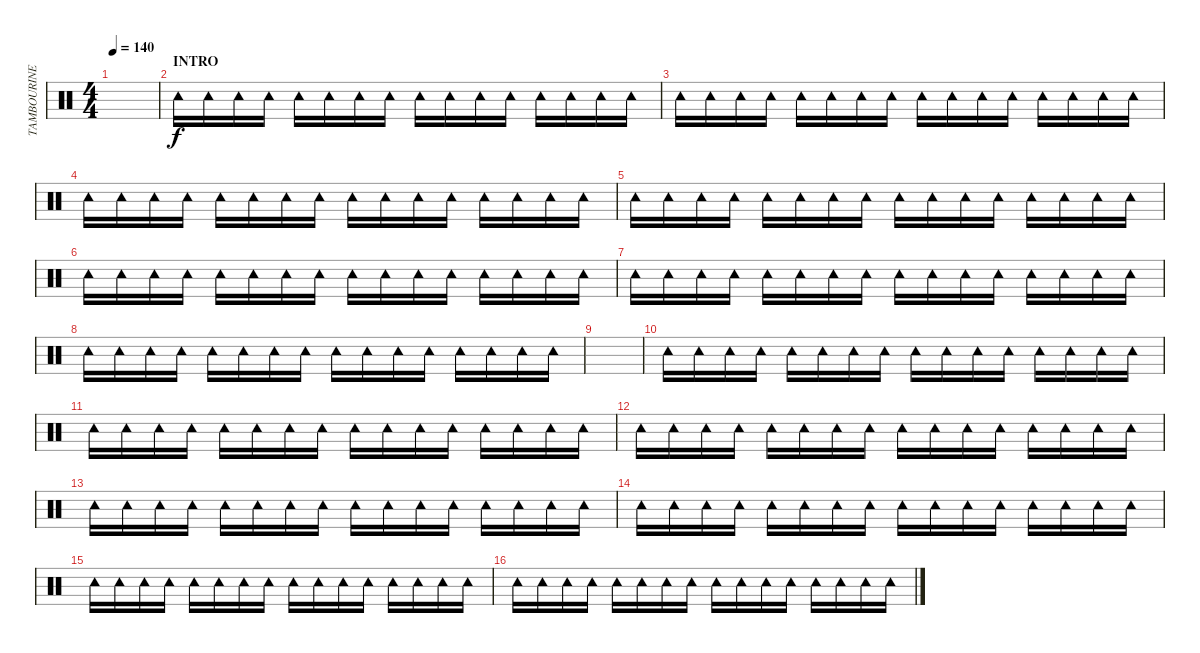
\track ("TAMBOURINE" "TAMBOURINE") {instrument percussion}
\staff {score}
\articulation defaults
\ts (4 4)
\tempo 140
\clef neutral
\ks c
|
\section ("" "INTRO")
"Tambourine (hit)".16 "Tambourine (hit)".16 "Tambourine (hit)".16 "Tambourine (hit)".16 "Tambourine (hit)".16 "Tambourine (hit)".16 "Tambourine (hit)".16 "Tambourine (hit)".16 "Tambourine (hit)".16 "Tambourine (hit)".16 "Tambourine (hit)".16 "Tambourine (hit)".16 "Tambourine (hit)".16 "Tambourine (hit)".16 "Tambourine (hit)".16 "Tambourine (hit)".16 |
"Tambourine (hit)".16 "Tambourine (hit)".16 "Tambourine (hit)".16 "Tambourine (hit)".16 "Tambourine (hit)".16 "Tambourine (hit)".16 "Tambourine (hit)".16 "Tambourine (hit)".16 "Tambourine (hit)".16 "Tambourine (hit)".16 "Tambourine (hit)".16 "Tambourine (hit)".16 "Tambourine (hit)".16 "Tambourine (hit)".16 "Tambourine (hit)".16 "Tambourine (hit)".16 |
"Tambourine (hit)".16 "Tambourine (hit)".16 "Tambourine (hit)".16 "Tambourine (hit)".16 "Tambourine (hit)".16 "Tambourine (hit)".16 "Tambourine (hit)".16 "Tambourine (hit)".16 "Tambourine (hit)".16 "Tambourine (hit)".16 "Tambourine (hit)".16 "Tambourine (hit)".16 "Tambourine (hit)".16 "Tambourine (hit)".16 "Tambourine (hit)".16 "Tambourine (hit)".16 |
"Tambourine (hit)".16 "Tambourine (hit)".16 "Tambourine (hit)".16 "Tambourine (hit)".16 "Tambourine (hit)".16 "Tambourine (hit)".16 "Tambourine (hit)".16 "Tambourine (hit)".16 "Tambourine (hit)".16 "Tambourine (hit)".16 "Tambourine (hit)".16 "Tambourine (hit)".16 "Tambourine (hit)".16 "Tambourine (hit)".16 "Tambourine (hit)".16 "Tambourine (hit)".16 |
"Tambourine (hit)".16 "Tambourine (hit)".16 "Tambourine (hit)".16 "Tambourine (hit)".16 "Tambourine (hit)".16 "Tambourine (hit)".16 "Tambourine (hit)".16 "Tambourine (hit)".16 "Tambourine (hit)".16 "Tambourine (hit)".16 "Tambourine (hit)".16 "Tambourine (hit)".16 "Tambourine (hit)".16 "Tambourine (hit)".16 "Tambourine (hit)".16 "Tambourine (hit)".16 |
"Tambourine (hit)".16 "Tambourine (hit)".16 "Tambourine (hit)".16 "Tambourine (hit)".16 "Tambourine (hit)".16 "Tambourine (hit)".16 "Tambourine (hit)".16 "Tambourine (hit)".16 "Tambourine (hit)".16 "Tambourine (hit)".16 "Tambourine (hit)".16 "Tambourine (hit)".16 "Tambourine (hit)".16 "Tambourine (hit)".16 "Tambourine (hit)".16 "Tambourine (hit)".16 |
"Tambourine (hit)".16 "Tambourine (hit)".16 "Tambourine (hit)".16 "Tambourine (hit)".16 "Tambourine (hit)".16 "Tambourine (hit)".16 "Tambourine (hit)".16 "Tambourine (hit)".16 "Tambourine (hit)".16 "Tambourine (hit)".16 "Tambourine (hit)".16 "Tambourine (hit)".16 "Tambourine (hit)".16 "Tambourine (hit)".16 "Tambourine (hit)".16 "Tambourine (hit)".16 |
|
"Tambourine (hit)".16 "Tambourine (hit)".16 "Tambourine (hit)".16 "Tambourine (hit)".16 "Tambourine (hit)".16 "Tambourine (hit)".16 "Tambourine (hit)".16 "Tambourine (hit)".16 "Tambourine (hit)".16 "Tambourine (hit)".16 "Tambourine (hit)".16 "Tambourine (hit)".16 "Tambourine (hit)".16 "Tambourine (hit)".16 "Tambourine (hit)".16 "Tambourine (hit)".16 |
"Tambourine (hit)".16 "Tambourine (hit)".16 "Tambourine (hit)".16 "Tambourine (hit)".16 "Tambourine (hit)".16 "Tambourine (hit)".16 "Tambourine (hit)".16 "Tambourine (hit)".16 "Tambourine (hit)".16 "Tambourine (hit)".16 "Tambourine (hit)".16 "Tambourine (hit)".16 "Tambourine (hit)".16 "Tambourine (hit)".16 "Tambourine (hit)".16 "Tambourine (hit)".16 |
"Tambourine (hit)".16 "Tambourine (hit)".16 "Tambourine (hit)".16 "Tambourine (hit)".16 "Tambourine (hit)".16 "Tambourine (hit)".16 "Tambourine (hit)".16 "Tambourine (hit)".16 "Tambourine (hit)".16 "Tambourine (hit)".16 "Tambourine (hit)".16 "Tambourine (hit)".16 "Tambourine (hit)".16 "Tambourine (hit)".16 "Tambourine (hit)".16 "Tambourine (hit)".16 |
"Tambourine (hit)".16 "Tambourine (hit)".16 "Tambourine (hit)".16 "Tambourine (hit)".16 "Tambourine (hit)".16 "Tambourine (hit)".16 "Tambourine (hit)".16 "Tambourine (hit)".16 "Tambourine (hit)".16 "Tambourine (hit)".16 "Tambourine (hit)".16 "Tambourine (hit)".16 "Tambourine (hit)".16 "Tambourine (hit)".16 "Tambourine (hit)".16 "Tambourine (hit)".16 |
"Tambourine (hit)".16 "Tambourine (hit)".16 "Tambourine (hit)".16 "Tambourine (hit)".16 "Tambourine (hit)".16 "Tambourine (hit)".16 "Tambourine (hit)".16 "Tambourine (hit)".16 "Tambourine (hit)".16 "Tambourine (hit)".16 "Tambourine (hit)".16 "Tambourine (hit)".16 "Tambourine (hit)".16 "Tambourine (hit)".16 "Tambourine (hit)".16 "Tambourine (hit)".16 |
"Tambourine (hit)".16 "Tambourine (hit)".16 "Tambourine (hit)".16 "Tambourine (hit)".16 "Tambourine (hit)".16 "Tambourine (hit)".16 "Tambourine (hit)".16 "Tambourine (hit)".16 "Tambourine (hit)".16 "Tambourine (hit)".16 "Tambourine (hit)".16 "Tambourine (hit)".16 "Tambourine (hit)".16 "Tambourine (hit)".16 "Tambourine (hit)".16 "Tambourine (hit)".16 |
"Tambourine (hit)".16 "Tambourine (hit)".16 "Tambourine (hit)".16 "Tambourine (hit)".16 "Tambourine (hit)".16 "Tambourine (hit)".16 "Tambourine (hit)".16 "Tambourine (hit)".16 "Tambourine (hit)".16 "Tambourine (hit)".16 "Tambourine (hit)".16 "Tambourine (hit)".16 "Tambourine (hit)".16 "Tambourine (hit)".16 "Tambourine (hit)".16 "Tambourine (hit)".16
